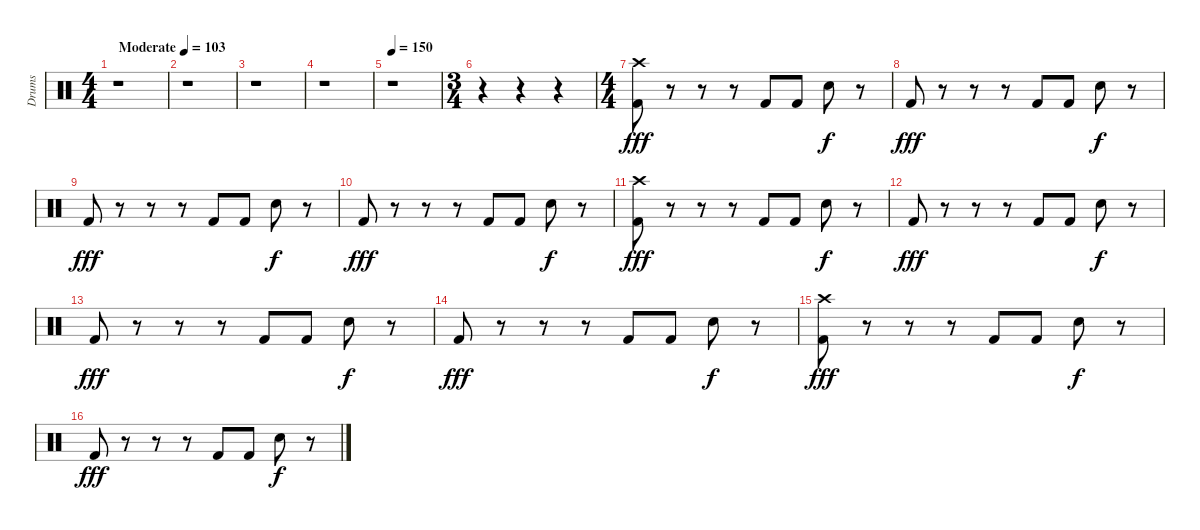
\track ("Drums" "Drums") {instrument percussion}
\staff {score}
\articulation defaults
\ts (4 4)
\tempo (103 "Moderate")
\clef neutral
\ks c
r.1{dy fff} |
r.1 |
r.1 |
r.1 |
\tempo 150
r.1 |
\ts (3 4)
r.4 r.4 r.4 |
\ts (4 4)
("Crash high (hit)" "Kick (hit) 2").8 r.8 r.8 r.8 "Kick (hit) 2".8 "Kick (hit) 2".8 "Snare (hit) 2".8{dy f} r.8 |
"Kick (hit) 2".8{dy fff} r.8 r.8 r.8 "Kick (hit) 2".8 "Kick (hit) 2".8 "Snare (hit) 2".8{dy f} r.8 |
"Kick (hit) 2".8{dy fff} r.8 r.8 r.8 "Kick (hit) 2".8 "Kick (hit) 2".8 "Snare (hit) 2".8{dy f} r.8 |
"Kick (hit) 2".8{dy fff} r.8 r.8 r.8 "Kick (hit) 2".8 "Kick (hit) 2".8 "Snare (hit) 2".8{dy f} r.8 |
("Crash high (hit)" "Kick (hit) 2").8{dy fff} r.8 r.8 r.8 "Kick (hit) 2".8 "Kick (hit) 2".8 "Snare (hit) 2".8{dy f} r.8 |
"Kick (hit) 2".8{dy fff} r.8 r.8 r.8 "Kick (hit) 2".8 "Kick (hit) 2".8 "Snare (hit) 2".8{dy f} r.8 |
"Kick (hit) 2".8{dy fff} r.8 r.8 r.8 "Kick (hit) 2".8 "Kick (hit) 2".8 "Snare (hit) 2".8{dy f} r.8 |
"Kick (hit) 2".8{dy fff} r.8 r.8 r.8 "Kick (hit) 2".8 "Kick (hit) 2".8 "Snare (hit) 2".8{dy f} r.8 |
("Crash high (hit)" "Kick (hit) 2").8{dy fff} r.8 r.8 r.8 "Kick (hit) 2".8 "Kick (hit) 2".8 "Snare (hit) 2".8{dy f} r.8 |
"Kick (hit) 2".8{dy fff} r.8 r.8 r.8 "Kick (hit) 2".8 "Kick (hit) 2".8 "Snare (hit) 2".8{dy f} r.8
